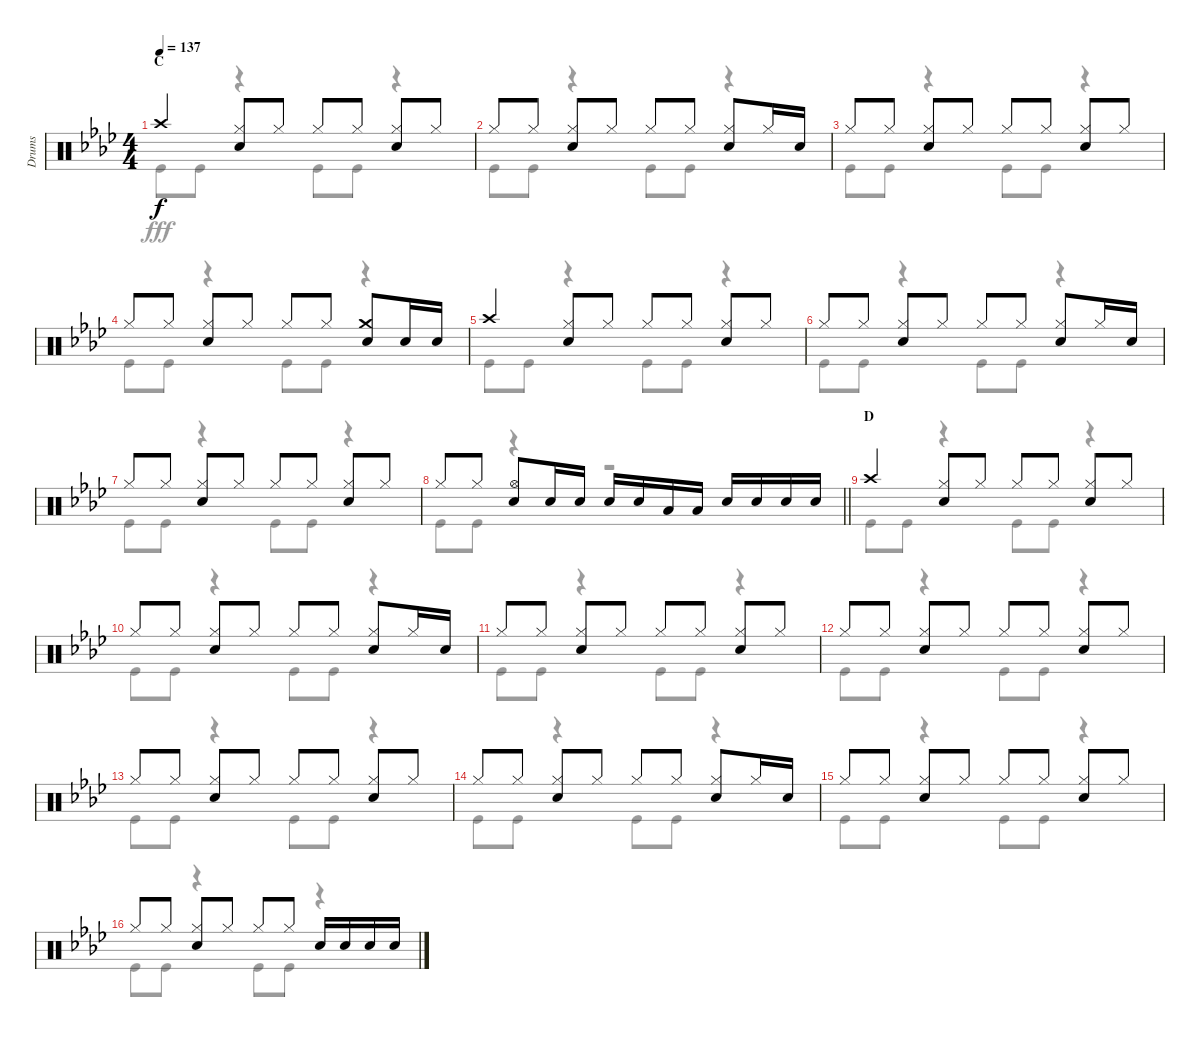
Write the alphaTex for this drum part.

\track ("Drums" "Drums") {instrument percussion}
\staff {score}
\articulation defaults
\voice
\ts (4 4)
\section ("" "C")
\tempo 137
\clef neutral
\ks ab "Crash high (hit)".4{dy f}
("Hi-Hat (closed)" "Snare (hit) 2").8 "Hi-Hat (closed)".8 "Hi-Hat (closed)".8 "Hi-Hat (closed)".8 ("Hi-Hat (closed)" "Snare (hit) 2").8 "Hi-Hat (closed)".8 |
"Hi-Hat (closed)".8 "Hi-Hat (closed)".8 ("Hi-Hat (closed)" "Snare (hit) 2").8 "Hi-Hat (closed)".8 "Hi-Hat (closed)".8 "Hi-Hat (closed)".8 ("Hi-Hat (closed)" "Snare (hit) 2").8 "Hi-Hat (closed)".16 "Snare (hit) 2".16 |
"Hi-Hat (closed)".8 "Hi-Hat (closed)".8 ("Hi-Hat (closed)" "Snare (hit) 2").8 "Hi-Hat (closed)".8 "Hi-Hat (closed)".8 "Hi-Hat (closed)".8 ("Hi-Hat (closed)" "Snare (hit) 2").8 "Hi-Hat (closed)".8 |
"Hi-Hat (closed)".8 "Hi-Hat (closed)".8 ("Hi-Hat (closed)" "Snare (hit) 2").8 "Hi-Hat (closed)".8 "Hi-Hat (closed)".8 "Hi-Hat (closed)".8 ("Crash medium (hit)" "Snare (hit) 2").8 "Snare (hit) 2".16 "Snare (hit) 2".16 |
"Crash high (hit)".4 ("Hi-Hat (closed)" "Snare (hit) 2").8 "Hi-Hat (closed)".8 "Hi-Hat (closed)".8 "Hi-Hat (closed)".8 ("Hi-Hat (closed)" "Snare (hit) 2").8 "Hi-Hat (closed)".8 |
"Hi-Hat (closed)".8 "Hi-Hat (closed)".8 ("Hi-Hat (closed)" "Snare (hit) 2").8 "Hi-Hat (closed)".8 "Hi-Hat (closed)".8 "Hi-Hat (closed)".8 ("Hi-Hat (closed)" "Snare (hit) 2").8 "Hi-Hat (closed)".16 "Snare (hit) 2".16 |
"Hi-Hat (closed)".8 "Hi-Hat (closed)".8 ("Hi-Hat (closed)" "Snare (hit) 2").8 "Hi-Hat (closed)".8 "Hi-Hat (closed)".8 "Hi-Hat (closed)".8 ("Hi-Hat (closed)" "Snare (hit) 2").8 "Hi-Hat (closed)".8 |
\barLineRight lightlight "Hi-Hat (closed)".8 "Hi-Hat (closed)".8
("Hi-Hat (open)" "Snare (hit) 2").8 "Snare (hit) 2".16 "Snare (hit) 2".16 "Snare (hit) 2".16 "Snare (hit) 2".16 "Low Tom (hit)".16 "Low Tom (hit)".16 "Snare (hit) 2".16 "Snare (hit) 2".16 "Snare (hit) 2".16 "Snare (hit) 2".16 |
\section ("" "D")
"Crash high (hit)".4 ("Hi-Hat (closed)" "Snare (hit) 2").8 "Hi-Hat (closed)".8 "Hi-Hat (closed)".8 "Hi-Hat (closed)".8 ("Hi-Hat (closed)" "Snare (hit) 2").8 "Hi-Hat (closed)".8 |
"Hi-Hat (closed)".8 "Hi-Hat (closed)".8 ("Hi-Hat (closed)" "Snare (hit) 2").8 "Hi-Hat (closed)".8 "Hi-Hat (closed)".8 "Hi-Hat (closed)".8 ("Hi-Hat (closed)" "Snare (hit) 2").8 "Hi-Hat (closed)".16 "Snare (hit) 2".16 |
"Hi-Hat (closed)".8 "Hi-Hat (closed)".8 ("Hi-Hat (closed)" "Snare (hit) 2").8 "Hi-Hat (closed)".8 "Hi-Hat (closed)".8 "Hi-Hat (closed)".8 ("Hi-Hat (closed)" "Snare (hit) 2").8 "Hi-Hat (closed)".8 |
"Hi-Hat (closed)".8 "Hi-Hat (closed)".8 ("Hi-Hat (closed)" "Snare (hit) 2").8 "Hi-Hat (closed)".8 "Hi-Hat (closed)".8 "Hi-Hat (closed)".8 ("Hi-Hat (closed)" "Snare (hit) 2").8 "Hi-Hat (closed)".8 |
"Hi-Hat (closed)".8 "Hi-Hat (closed)".8 ("Hi-Hat (closed)" "Snare (hit) 2").8 "Hi-Hat (closed)".8 "Hi-Hat (closed)".8 "Hi-Hat (closed)".8 ("Hi-Hat (closed)" "Snare (hit) 2").8 "Hi-Hat (closed)".8 |
"Hi-Hat (closed)".8 "Hi-Hat (closed)".8 ("Hi-Hat (closed)" "Snare (hit) 2").8 "Hi-Hat (closed)".8 "Hi-Hat (closed)".8 "Hi-Hat (closed)".8 ("Hi-Hat (closed)" "Snare (hit) 2").8 "Hi-Hat (closed)".16 "Snare (hit) 2".16 |
"Hi-Hat (closed)".8 "Hi-Hat (closed)".8 ("Hi-Hat (closed)" "Snare (hit) 2").8 "Hi-Hat (closed)".8 "Hi-Hat (closed)".8 "Hi-Hat (closed)".8 ("Hi-Hat (closed)" "Snare (hit) 2").8 "Hi-Hat (closed)".8 |
"Hi-Hat (closed)".8 "Hi-Hat (closed)".8 ("Hi-Hat (closed)" "Snare (hit) 2").8 "Hi-Hat (closed)".8 "Hi-Hat (closed)".8 "Hi-Hat (closed)".8 "Snare (hit) 2".16 "Snare (hit) 2".16 "Snare (hit) 2".16 "Snare (hit) 2".16
\voice
\clef neutral
\ottava regular
\simile none
\ks ab "Kick (hit)".8{dy fff} "Kick (hit)".8
r.4 "Kick (hit)".8 "Kick (hit)".8 r.4 |
"Kick (hit)".8 "Kick (hit)".8 r.4 "Kick (hit)".8 "Kick (hit)".8 r.4 |
"Kick (hit)".8 "Kick (hit)".8 r.4 "Kick (hit)".8 "Kick (hit)".8 r.4 |
"Kick (hit)".8 "Kick (hit)".8 r.4 "Kick (hit)".8 "Kick (hit)".8 r.4 |
"Kick (hit)".8 "Kick (hit)".8 r.4 "Kick (hit)".8 "Kick (hit)".8 r.4 |
"Kick (hit)".8 "Kick (hit)".8 r.4 "Kick (hit)".8 "Kick (hit)".8 r.4 |
"Kick (hit)".8 "Kick (hit)".8 r.4 "Kick (hit)".8 "Kick (hit)".8 r.4 |
\barLineRight lightlight "Kick (hit)".8 "Kick (hit)".8
r.4 r.2 |
"Kick (hit)".8 "Kick (hit)".8 r.4 "Kick (hit)".8 "Kick (hit)".8 r.4 |
"Kick (hit)".8 "Kick (hit)".8 r.4 "Kick (hit)".8 "Kick (hit)".8 r.4 |
"Kick (hit)".8 "Kick (hit)".8 r.4 "Kick (hit)".8 "Kick (hit)".8 r.4 |
"Kick (hit)".8 "Kick (hit)".8 r.4 "Kick (hit)".8 "Kick (hit)".8 r.4 |
"Kick (hit)".8 "Kick (hit)".8 r.4 "Kick (hit)".8 "Kick (hit)".8 r.4 |
"Kick (hit)".8 "Kick (hit)".8 r.4 "Kick (hit)".8 "Kick (hit)".8 r.4 |
"Kick (hit)".8 "Kick (hit)".8 r.4 "Kick (hit)".8 "Kick (hit)".8 r.4 |
"Kick (hit)".8 "Kick (hit)".8 r.4 "Kick (hit)".8 "Kick (hit)".8 r.4
